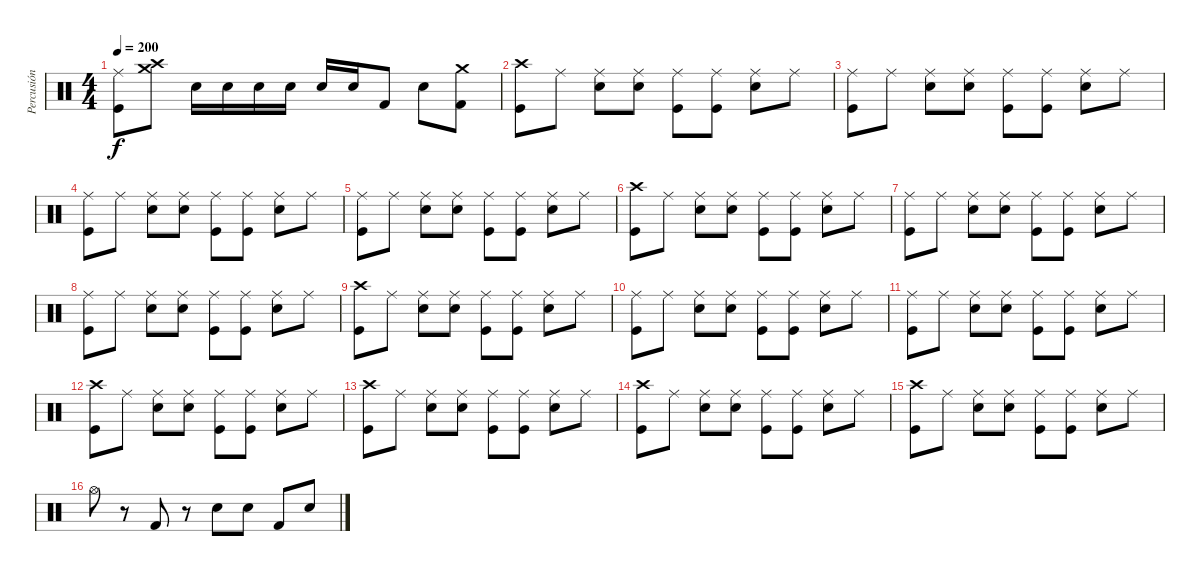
\track ("Percusión" "Percusión") {instrument percussion}
\staff {score}
\articulation defaults
\ts (4 4)
\tempo 200
\clef neutral
\ks c
("Ride (middle)" "Kick (hit)").8{dy f} ("Crash high (hit)" "Crash medium (hit)").8 "Snare (hit) 2".16 "Snare (hit) 2".16 "Snare (hit) 2".16 "Snare (hit) 2".16 "Snare (hit) 2".16 "Snare (hit) 2".16 "Kick (hit) 2".8 "Snare (hit) 2".8 ("Crash medium (hit)" "Kick (hit) 2").8 |
("Crash high (hit)" "Kick (hit)").8 "Ride (middle)".8 ("Ride (middle)" "Snare (hit) 2").8 ("Ride (middle)" "Snare (hit) 2").8 ("Ride (middle)" "Kick (hit)").8 ("Ride (middle)" "Kick (hit)").8 ("Ride (middle)" "Snare (hit) 2").8 "Ride (middle)".8 |
("Ride (middle)" "Kick (hit)").8 "Ride (middle)".8 ("Ride (middle)" "Snare (hit) 2").8 ("Ride (middle)" "Snare (hit) 2").8 ("Ride (middle)" "Kick (hit)").8 ("Ride (middle)" "Kick (hit)").8 ("Ride (middle)" "Snare (hit) 2").8 "Ride (middle)".8 |
("Ride (middle)" "Kick (hit)").8 "Ride (middle)".8 ("Ride (middle)" "Snare (hit) 2").8 ("Ride (middle)" "Snare (hit) 2").8 ("Ride (middle)" "Kick (hit)").8 ("Ride (middle)" "Kick (hit)").8 ("Ride (middle)" "Snare (hit) 2").8 "Ride (middle)".8 |
("Ride (middle)" "Kick (hit)").8 "Ride (middle)".8 ("Ride (middle)" "Snare (hit) 2").8 ("Ride (middle)" "Snare (hit) 2").8 ("Ride (middle)" "Kick (hit)").8 ("Ride (middle)" "Kick (hit)").8 ("Ride (middle)" "Snare (hit) 2").8 "Ride (middle)".8 |
("Crash high (hit)" "Kick (hit)").8 "Ride (middle)".8 ("Ride (middle)" "Snare (hit) 2").8 ("Ride (middle)" "Snare (hit) 2").8 ("Ride (middle)" "Kick (hit)").8 ("Ride (middle)" "Kick (hit)").8 ("Ride (middle)" "Snare (hit) 2").8 "Ride (middle)".8 |
("Ride (middle)" "Kick (hit)").8 "Ride (middle)".8 ("Ride (middle)" "Snare (hit) 2").8 ("Ride (middle)" "Snare (hit) 2").8 ("Ride (middle)" "Kick (hit)").8 ("Ride (middle)" "Kick (hit)").8 ("Ride (middle)" "Snare (hit) 2").8 "Ride (middle)".8 |
("Ride (middle)" "Kick (hit)").8 "Ride (middle)".8 ("Ride (middle)" "Snare (hit) 2").8 ("Ride (middle)" "Snare (hit) 2").8 ("Ride (middle)" "Kick (hit)").8 ("Ride (middle)" "Kick (hit)").8 ("Ride (middle)" "Snare (hit) 2").8 "Ride (middle)".8 |
("Crash high (hit)" "Kick (hit)").8 "Ride (middle)".8 ("Ride (middle)" "Snare (hit) 2").8 ("Ride (middle)" "Snare (hit) 2").8 ("Ride (middle)" "Kick (hit)").8 ("Ride (middle)" "Kick (hit)").8 ("Ride (middle)" "Snare (hit) 2").8 "Ride (middle)".8 |
("Ride (middle)" "Kick (hit)").8 "Ride (middle)".8 ("Ride (middle)" "Snare (hit) 2").8 ("Ride (middle)" "Snare (hit) 2").8 ("Ride (middle)" "Kick (hit)").8 ("Ride (middle)" "Kick (hit)").8 ("Ride (middle)" "Snare (hit) 2").8 "Ride (middle)".8 |
("Ride (middle)" "Kick (hit)").8 "Ride (middle)".8 ("Ride (middle)" "Snare (hit) 2").8 ("Ride (middle)" "Snare (hit) 2").8 ("Ride (middle)" "Kick (hit)").8 ("Ride (middle)" "Kick (hit)").8 ("Ride (middle)" "Snare (hit) 2").8 "Ride (middle)".8 |
("Crash high (hit)" "Kick (hit)").8 "Ride (middle)".8 ("Ride (middle)" "Snare (hit) 2").8 ("Ride (middle)" "Snare (hit) 2").8 ("Ride (middle)" "Kick (hit)").8 ("Ride (middle)" "Kick (hit)").8 ("Ride (middle)" "Snare (hit) 2").8 "Ride (middle)".8 |
("Crash high (hit)" "Kick (hit)").8 "Ride (middle)".8 ("Ride (middle)" "Snare (hit) 2").8 ("Ride (middle)" "Snare (hit) 2").8 ("Ride (middle)" "Kick (hit)").8 ("Ride (middle)" "Kick (hit)").8 ("Ride (middle)" "Snare (hit) 2").8 "Ride (middle)".8 |
("Crash high (hit)" "Kick (hit)").8 "Ride (middle)".8 ("Ride (middle)" "Snare (hit) 2").8 ("Ride (middle)" "Snare (hit) 2").8 ("Ride (middle)" "Kick (hit)").8 ("Ride (middle)" "Kick (hit)").8 ("Ride (middle)" "Snare (hit) 2").8 "Ride (middle)".8 |
("Crash high (hit)" "Kick (hit)").8 "Ride (middle)".8 ("Ride (middle)" "Snare (hit) 2").8 ("Ride (middle)" "Snare (hit) 2").8 ("Ride (middle)" "Kick (hit)").8 ("Ride (middle)" "Kick (hit)").8 ("Ride (middle)" "Snare (hit) 2").8 "Ride (middle)".8 |
"Hi-Hat (open)".8 r.8 "Kick (hit) 2".8 r.8 "Snare (hit) 2".8 "Snare (hit) 2".8 "Kick (hit) 2".8 "Snare (hit) 2".8
